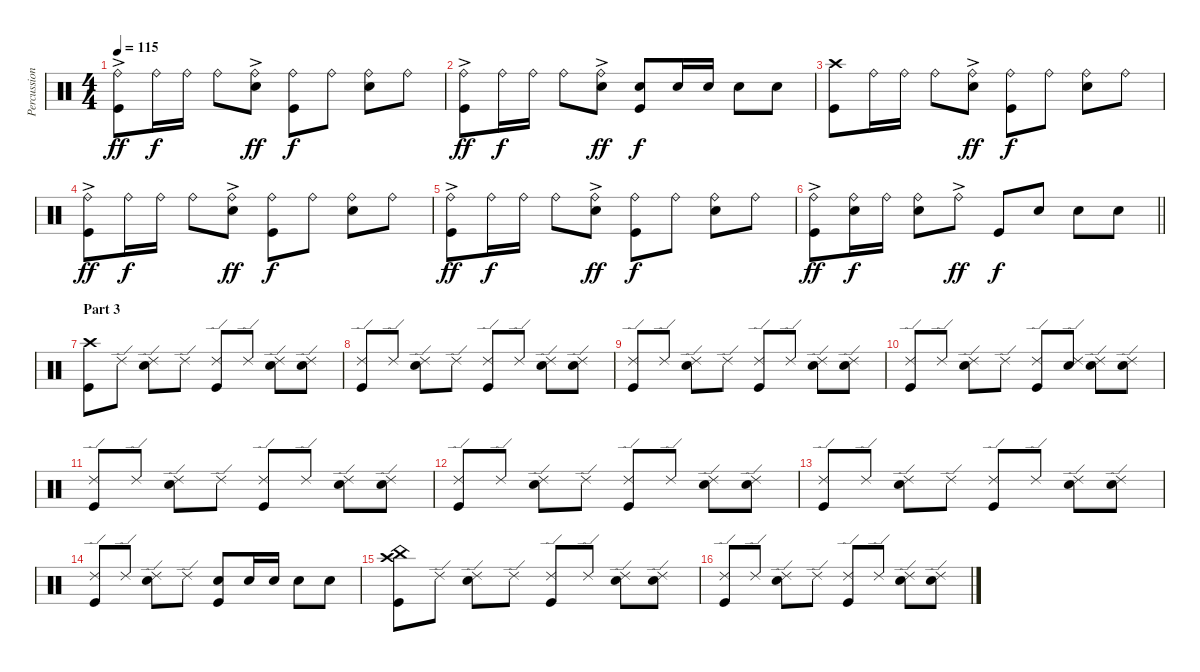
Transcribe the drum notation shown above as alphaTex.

\track ("Percussion" "Percussion") {instrument percussion}
\staff {score}
\articulation defaults
\ts (4 4)
\tempo 115
\clef neutral
\ks c
("Ride (bell)"{ac} "Kick (hit)").8{dy ff} "Ride (bell)".16{dy f} "Ride (bell)".16 "Ride (bell)".8 ("Ride (bell)"{ac} "Snare (hit) 2").8{dy ff} ("Ride (bell)" "Kick (hit)").8{dy f} "Ride (bell)".8 ("Ride (bell)" "Snare (hit) 2").8 "Ride (bell)".8 |
("Ride (bell)"{ac} "Kick (hit)").8{dy ff} "Ride (bell)".16{dy f} "Ride (bell)".16 "Ride (bell)".8 ("Ride (bell)"{ac} "Snare (hit) 2").8{dy ff} ("Snare (hit) 2" "Kick (hit)").8{dy f} "Snare (hit) 2".16 "Snare (hit) 2".16 "Snare (hit) 2".8 "Snare (hit) 2".8 |
("Crash high (hit)" "Kick (hit)").8 "Ride (bell)".16 "Ride (bell)".16 "Ride (bell)".8 ("Ride (bell)"{ac} "Snare (hit) 2").8{dy ff} ("Ride (bell)" "Kick (hit)").8{dy f} "Ride (bell)".8 ("Ride (bell)" "Snare (hit) 2").8 "Ride (bell)".8 |
("Ride (bell)"{ac} "Kick (hit)").8{dy ff} "Ride (bell)".16{dy f} "Ride (bell)".16 "Ride (bell)".8 ("Ride (bell)"{ac} "Snare (hit) 2").8{dy ff} ("Ride (bell)" "Kick (hit)").8{dy f} "Ride (bell)".8 ("Ride (bell)" "Snare (hit) 2").8 "Ride (bell)".8 |
("Ride (bell)"{ac} "Kick (hit)").8{dy ff} "Ride (bell)".16{dy f} "Ride (bell)".16 "Ride (bell)".8 ("Ride (bell)"{ac} "Snare (hit) 2").8{dy ff} ("Ride (bell)" "Kick (hit)").8{dy f} "Ride (bell)".8 ("Ride (bell)" "Snare (hit) 2").8 "Ride (bell)".8 |
\barLineRight lightlight
("Ride (bell)"{ac} "Kick (hit)").8{dy ff} ("Ride (bell)" "Snare (hit) 2").16{dy f} "Ride (bell)".16 ("Ride (bell)" "Snare (hit) 2").8 "Ride (bell)"{ac}.8{dy ff} "Kick (hit)".8{dy f} "Snare (hit) 2".8 "Snare (hit) 2".8 "Snare (hit) 2".8 |
\section ("" "Part 3")
("Crash high (hit)" "Kick (hit)").8 "Ride (edge) 2".8 ("Ride (edge) 2" "Snare (hit) 2").8 "Ride (edge) 2".8 ("Ride (edge) 2" "Kick (hit)").8 "Ride (edge) 2".8 ("Ride (edge) 2" "Snare (hit) 2").8 ("Ride (edge) 2" "Snare (hit) 2").8 |
("Ride (edge) 2" "Kick (hit)").8 "Ride (edge) 2".8 ("Ride (edge) 2" "Snare (hit) 2").8 "Ride (edge) 2".8 ("Ride (edge) 2" "Kick (hit)").8 "Ride (edge) 2".8 ("Ride (edge) 2" "Snare (hit) 2").8 ("Ride (edge) 2" "Snare (hit) 2").8 |
("Ride (edge) 2" "Kick (hit)").8 "Ride (edge) 2".8 ("Ride (edge) 2" "Snare (hit) 2").8 "Ride (edge) 2".8 ("Ride (edge) 2" "Kick (hit)").8 "Ride (edge) 2".8 ("Ride (edge) 2" "Snare (hit) 2").8 ("Ride (edge) 2" "Snare (hit) 2").8 |
("Ride (edge) 2" "Kick (hit)").8 "Ride (edge) 2".8 ("Ride (edge) 2" "Snare (hit) 2").8 "Ride (edge) 2".8 ("Ride (edge) 2" "Kick (hit)").8 ("Ride (edge) 2" "Snare (hit) 2").8 ("Ride (edge) 2" "Snare (hit) 2").8 ("Ride (edge) 2" "Snare (hit) 2").8 |
("Ride (edge) 2" "Kick (hit)").8 "Ride (edge) 2".8 ("Ride (edge) 2" "Snare (hit) 2").8 "Ride (edge) 2".8 ("Ride (edge) 2" "Kick (hit)").8 "Ride (edge) 2".8 ("Ride (edge) 2" "Snare (hit) 2").8 ("Ride (edge) 2" "Snare (hit) 2").8 |
("Ride (edge) 2" "Kick (hit)").8 "Ride (edge) 2".8 ("Ride (edge) 2" "Snare (hit) 2").8 "Ride (edge) 2".8 ("Ride (edge) 2" "Kick (hit)").8 "Ride (edge) 2".8 ("Ride (edge) 2" "Snare (hit) 2").8 ("Ride (edge) 2" "Snare (hit) 2").8 |
("Ride (edge) 2" "Kick (hit)").8 "Ride (edge) 2".8 ("Ride (edge) 2" "Snare (hit) 2").8 "Ride (edge) 2".8 ("Ride (edge) 2" "Kick (hit)").8 "Ride (edge) 2".8 ("Ride (edge) 2" "Snare (hit) 2").8 ("Ride (edge) 2" "Snare (hit) 2").8 |
("Ride (edge) 2" "Kick (hit)").8 "Ride (edge) 2".8 ("Ride (edge) 2" "Snare (hit) 2").8 "Ride (edge) 2".8 ("Snare (hit) 2" "Kick (hit)").8 "Snare (hit) 2".16 "Snare (hit) 2".16 "Snare (hit) 2".8 "Snare (hit) 2".8 |
("China (hit)" "Crash high (hit)" "Kick (hit)").8 "Ride (edge) 2".8 ("Ride (edge) 2" "Snare (hit) 2").8 "Ride (edge) 2".8 ("Ride (edge) 2" "Kick (hit)").8 "Ride (edge) 2".8 ("Ride (edge) 2" "Snare (hit) 2").8 ("Ride (edge) 2" "Snare (hit) 2").8 |
("Ride (edge) 2" "Kick (hit)").8 "Ride (edge) 2".8 ("Ride (edge) 2" "Snare (hit) 2").8 "Ride (edge) 2".8 ("Ride (edge) 2" "Kick (hit)").8 "Ride (edge) 2".8 ("Ride (edge) 2" "Snare (hit) 2").8 ("Ride (edge) 2" "Snare (hit) 2").8
